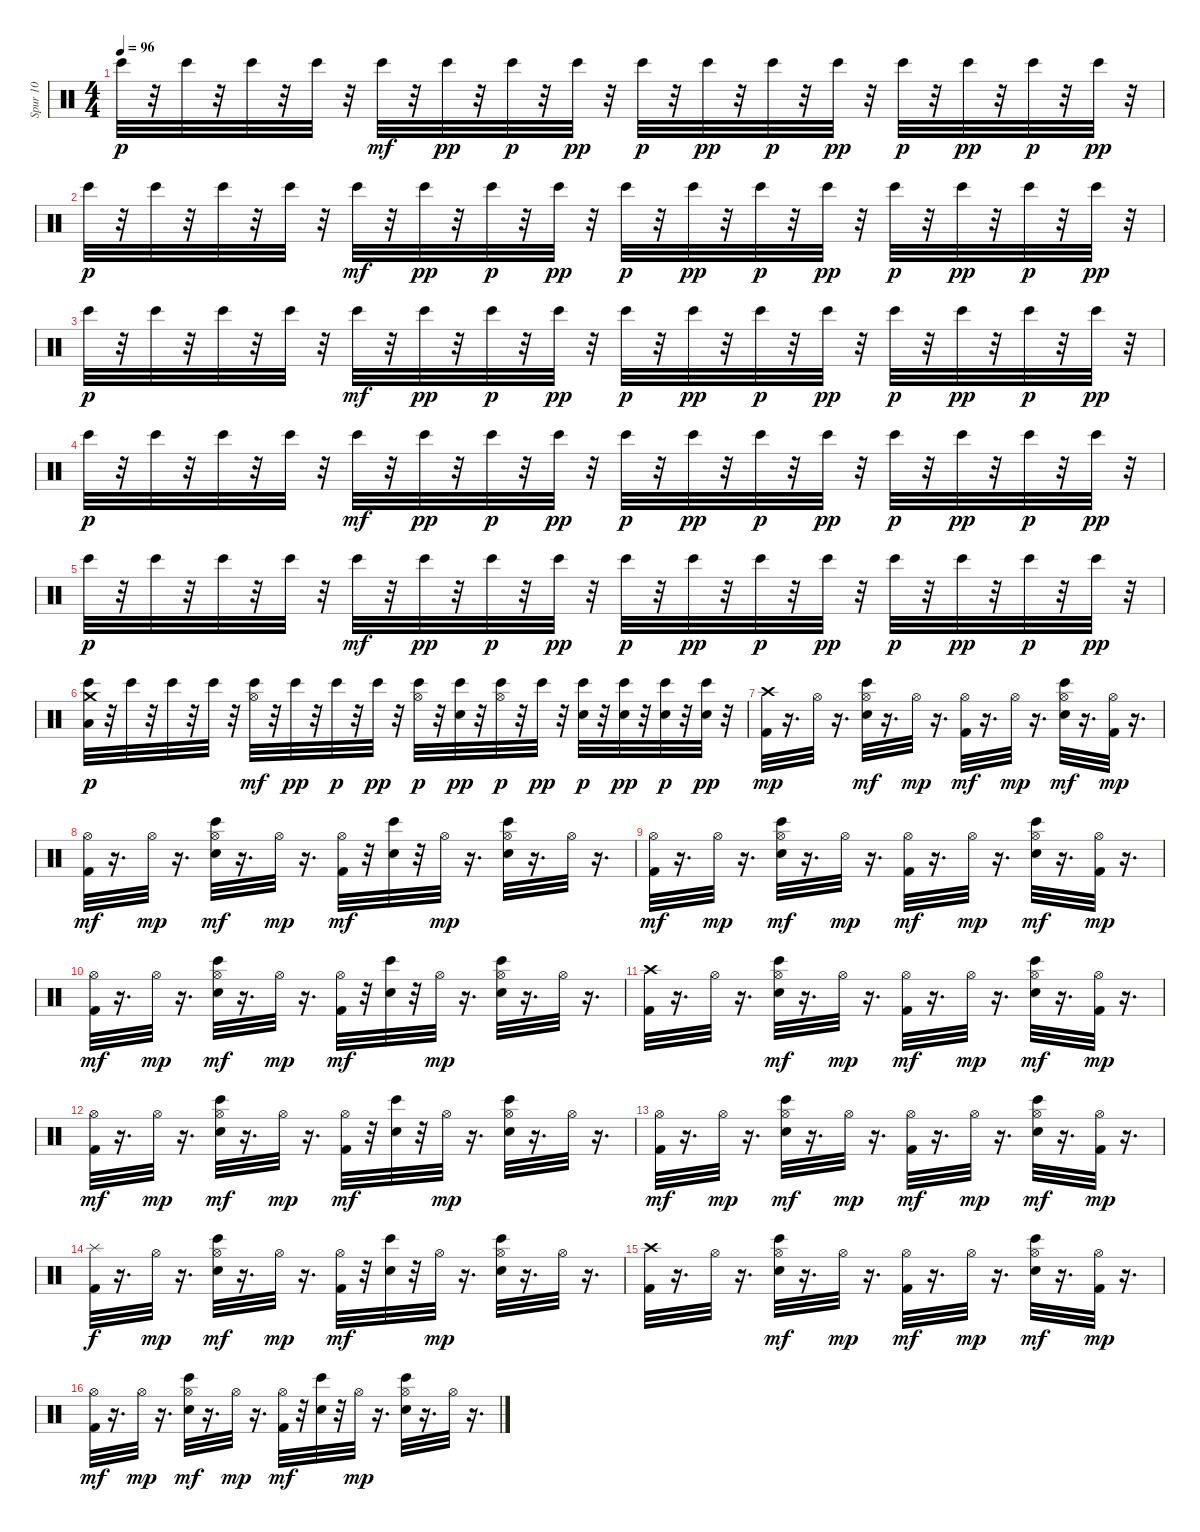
\track ("Spur 10" "Spur 10") {instrument percussion}
\staff {score}
\articulation defaults
\ts (4 4)
\tempo 96
\clef neutral
\ks c "Bongo High (hit)".32{dy p}
r.32 "Bongo High (hit)".32 r.32 "Bongo High (hit)".32 r.32 "Bongo High (hit)".32 r.32 "Bongo High (hit)".32{dy mf} r.32 "Bongo High (hit)".32{dy pp} r.32 "Bongo High (hit)".32{dy p} r.32 "Bongo High (hit)".32{dy pp} r.32 "Bongo High (hit)".32{dy p} r.32 "Bongo High (hit)".32{dy pp} r.32 "Bongo High (hit)".32{dy p} r.32 "Bongo High (hit)".32{dy pp} r.32 "Bongo High (hit)".32{dy p} r.32 "Bongo High (hit)".32{dy pp} r.32 "Bongo High (hit)".32{dy p} r.32 "Bongo High (hit)".32{dy pp} r.32 |
"Bongo High (hit)".32{dy p} r.32 "Bongo High (hit)".32 r.32 "Bongo High (hit)".32 r.32 "Bongo High (hit)".32 r.32 "Bongo High (hit)".32{dy mf} r.32 "Bongo High (hit)".32{dy pp} r.32 "Bongo High (hit)".32{dy p} r.32 "Bongo High (hit)".32{dy pp} r.32 "Bongo High (hit)".32{dy p} r.32 "Bongo High (hit)".32{dy pp} r.32 "Bongo High (hit)".32{dy p} r.32 "Bongo High (hit)".32{dy pp} r.32 "Bongo High (hit)".32{dy p} r.32 "Bongo High (hit)".32{dy pp} r.32 "Bongo High (hit)".32{dy p} r.32 "Bongo High (hit)".32{dy pp} r.32 |
"Bongo High (hit)".32{dy p} r.32 "Bongo High (hit)".32 r.32 "Bongo High (hit)".32 r.32 "Bongo High (hit)".32 r.32 "Bongo High (hit)".32{dy mf} r.32 "Bongo High (hit)".32{dy pp} r.32 "Bongo High (hit)".32{dy p} r.32 "Bongo High (hit)".32{dy pp} r.32 "Bongo High (hit)".32{dy p} r.32 "Bongo High (hit)".32{dy pp} r.32 "Bongo High (hit)".32{dy p} r.32 "Bongo High (hit)".32{dy pp} r.32 "Bongo High (hit)".32{dy p} r.32 "Bongo High (hit)".32{dy pp} r.32 "Bongo High (hit)".32{dy p} r.32 "Bongo High (hit)".32{dy pp} r.32 |
"Bongo High (hit)".32{dy p} r.32 "Bongo High (hit)".32 r.32 "Bongo High (hit)".32 r.32 "Bongo High (hit)".32 r.32 "Bongo High (hit)".32{dy mf} r.32 "Bongo High (hit)".32{dy pp} r.32 "Bongo High (hit)".32{dy p} r.32 "Bongo High (hit)".32{dy pp} r.32 "Bongo High (hit)".32{dy p} r.32 "Bongo High (hit)".32{dy pp} r.32 "Bongo High (hit)".32{dy p} r.32 "Bongo High (hit)".32{dy pp} r.32 "Bongo High (hit)".32{dy p} r.32 "Bongo High (hit)".32{dy pp} r.32 "Bongo High (hit)".32{dy p} r.32 "Bongo High (hit)".32{dy pp} r.32 |
"Bongo High (hit)".32{dy p} r.32 "Bongo High (hit)".32 r.32 "Bongo High (hit)".32 r.32 "Bongo High (hit)".32 r.32 "Bongo High (hit)".32{dy mf} r.32 "Bongo High (hit)".32{dy pp} r.32 "Bongo High (hit)".32{dy p} r.32 "Bongo High (hit)".32{dy pp} r.32 "Bongo High (hit)".32{dy p} r.32 "Bongo High (hit)".32{dy pp} r.32 "Bongo High (hit)".32{dy p} r.32 "Bongo High (hit)".32{dy pp} r.32 "Bongo High (hit)".32{dy p} r.32 "Bongo High (hit)".32{dy pp} r.32 "Bongo High (hit)".32{dy p} r.32 "Bongo High (hit)".32{dy pp} r.32 |
("Crash medium (hit)" "Low Floor Tom (hit)" "Bongo High (hit)").32{dy p} r.32 "Bongo High (hit)".32 r.32 "Bongo High (hit)".32 r.32 "Bongo High (hit)".32 r.32 ("Hi-Hat (open)" "Bongo High (hit)").32{dy mf} r.32 "Bongo High (hit)".32{dy pp} r.32 "Bongo High (hit)".32{dy p} r.32 "Bongo High (hit)".32{dy pp} r.32 ("Hi-Hat (open)" "Bongo High (hit)").32{dy p} r.32 ("Snare (hit) 2" "Bongo High (hit)").32{dy pp} r.32 ("Hi-Hat (open)" "Bongo High (hit)").32{dy p} r.32 "Bongo High (hit)".32{dy pp} r.32 ("Snare (hit) 2" "Bongo High (hit)").32{dy p} r.32 ("Snare (hit) 2" "Bongo High (hit)").32{dy pp} r.32 ("Snare (hit) 2" "Bongo High (hit)").32{dy p} r.32 ("Snare (hit) 2" "Bongo High (hit)").32{dy pp} r.32 |
("Crash high (hit)" "Kick (hit) 2").32{dy mp} r.16{d} "Hi-Hat (open)".32 r.16{d} ("Hi-Hat (open)" "Snare (hit) 2" "Bongo High (hit)").32{dy mf} r.16{d} "Hi-Hat (open)".32{dy mp} r.16{d} ("Hi-Hat (open)" "Kick (hit) 2").32{dy mf} r.16{d} "Hi-Hat (open)".32{dy mp} r.16{d} ("Hi-Hat (open)" "Snare (hit) 2" "Bongo High (hit)").32{dy mf} r.16{d} ("Hi-Hat (open)" "Kick (hit) 2").32{dy mp} r.16{d} |
("Hi-Hat (open)" "Kick (hit) 2").32{dy mf} r.16{d} "Hi-Hat (open)".32{dy mp} r.16{d} ("Hi-Hat (open)" "Snare (hit) 2" "Bongo High (hit)").32{dy mf} r.16{d} "Hi-Hat (open)".32{dy mp} r.16{d} ("Hi-Hat (open)" "Kick (hit) 2").32{dy mf} r.32 ("Snare (hit) 2" "Bongo High (hit)").32 r.32 "Hi-Hat (open)".32{dy mp} r.16{d} ("Hi-Hat (open)" "Snare (hit) 2" "Bongo High (hit)").32 r.16{d} "Hi-Hat (open)".32 r.16{d} |
("Hi-Hat (open)" "Kick (hit) 2").32{dy mf} r.16{d} "Hi-Hat (open)".32{dy mp} r.16{d} ("Hi-Hat (open)" "Snare (hit) 2" "Bongo High (hit)").32{dy mf} r.16{d} "Hi-Hat (open)".32{dy mp} r.16{d} ("Hi-Hat (open)" "Kick (hit) 2").32{dy mf} r.16{d} "Hi-Hat (open)".32{dy mp} r.16{d} ("Hi-Hat (open)" "Snare (hit) 2" "Bongo High (hit)").32{dy mf} r.16{d} ("Hi-Hat (open)" "Kick (hit) 2").32{dy mp} r.16{d} |
("Hi-Hat (open)" "Kick (hit) 2").32{dy mf} r.16{d} "Hi-Hat (open)".32{dy mp} r.16{d} ("Hi-Hat (open)" "Snare (hit) 2" "Bongo High (hit)").32{dy mf} r.16{d} "Hi-Hat (open)".32{dy mp} r.16{d} ("Hi-Hat (open)" "Kick (hit) 2").32{dy mf} r.32 ("Snare (hit) 2" "Bongo High (hit)").32 r.32 "Hi-Hat (open)".32{dy mp} r.16{d} ("Hi-Hat (open)" "Snare (hit) 2" "Bongo High (hit)").32 r.16{d} "Hi-Hat (open)".32 r.16{d} |
("Crash high (hit)" "Kick (hit) 2").32 r.16{d} "Hi-Hat (open)".32 r.16{d} ("Hi-Hat (open)" "Snare (hit) 2" "Bongo High (hit)").32{dy mf} r.16{d} "Hi-Hat (open)".32{dy mp} r.16{d} ("Hi-Hat (open)" "Kick (hit) 2").32{dy mf} r.16{d} "Hi-Hat (open)".32{dy mp} r.16{d} ("Hi-Hat (open)" "Snare (hit) 2" "Bongo High (hit)").32{dy mf} r.16{d} ("Hi-Hat (open)" "Kick (hit) 2").32{dy mp} r.16{d} |
("Hi-Hat (open)" "Kick (hit) 2").32{dy mf} r.16{d} "Hi-Hat (open)".32{dy mp} r.16{d} ("Hi-Hat (open)" "Snare (hit) 2" "Bongo High (hit)").32{dy mf} r.16{d} "Hi-Hat (open)".32{dy mp} r.16{d} ("Hi-Hat (open)" "Kick (hit) 2").32{dy mf} r.32 ("Snare (hit) 2" "Bongo High (hit)").32 r.32 "Hi-Hat (open)".32{dy mp} r.16{d} ("Hi-Hat (open)" "Snare (hit) 2" "Bongo High (hit)").32 r.16{d} "Hi-Hat (open)".32 r.16{d} |
("Hi-Hat (open)" "Kick (hit) 2").32{dy mf} r.16{d} "Hi-Hat (open)".32{dy mp} r.16{d} ("Hi-Hat (open)" "Snare (hit) 2" "Bongo High (hit)").32{dy mf} r.16{d} "Hi-Hat (open)".32{dy mp} r.16{d} ("Hi-Hat (open)" "Kick (hit) 2").32{dy mf} r.16{d} "Hi-Hat (open)".32{dy mp} r.16{d} ("Hi-Hat (open)" "Snare (hit) 2" "Bongo High (hit)").32{dy mf} r.16{d} ("Hi-Hat (open)" "Kick (hit) 2").32{dy mp} r.16{d} |
("Splash (hit)" "Kick (hit) 2").32{dy f} r.16{d} "Hi-Hat (open)".32{dy mp} r.16{d} ("Hi-Hat (open)" "Snare (hit) 2" "Bongo High (hit)").32{dy mf} r.16{d} "Hi-Hat (open)".32{dy mp} r.16{d} ("Hi-Hat (open)" "Kick (hit) 2").32{dy mf} r.32 ("Snare (hit) 2" "Bongo High (hit)").32 r.32 "Hi-Hat (open)".32{dy mp} r.16{d} ("Hi-Hat (open)" "Snare (hit) 2" "Bongo High (hit)").32 r.16{d} "Hi-Hat (open)".32 r.16{d} |
("Crash high (hit)" "Kick (hit) 2").32 r.16{d} "Hi-Hat (open)".32 r.16{d} ("Hi-Hat (open)" "Snare (hit) 2" "Bongo High (hit)").32{dy mf} r.16{d} "Hi-Hat (open)".32{dy mp} r.16{d} ("Hi-Hat (open)" "Kick (hit) 2").32{dy mf} r.16{d} "Hi-Hat (open)".32{dy mp} r.16{d} ("Hi-Hat (open)" "Snare (hit) 2" "Bongo High (hit)").32{dy mf} r.16{d} ("Hi-Hat (open)" "Kick (hit) 2").32{dy mp} r.16{d} |
("Hi-Hat (open)" "Kick (hit) 2").32{dy mf} r.16{d} "Hi-Hat (open)".32{dy mp} r.16{d} ("Hi-Hat (open)" "Snare (hit) 2" "Bongo High (hit)").32{dy mf} r.16{d} "Hi-Hat (open)".32{dy mp} r.16{d} ("Hi-Hat (open)" "Kick (hit) 2").32{dy mf} r.32 ("Snare (hit) 2" "Bongo High (hit)").32 r.32 "Hi-Hat (open)".32{dy mp} r.16{d} ("Hi-Hat (open)" "Snare (hit) 2" "Bongo High (hit)").32 r.16{d} "Hi-Hat (open)".32 r.16{d}
